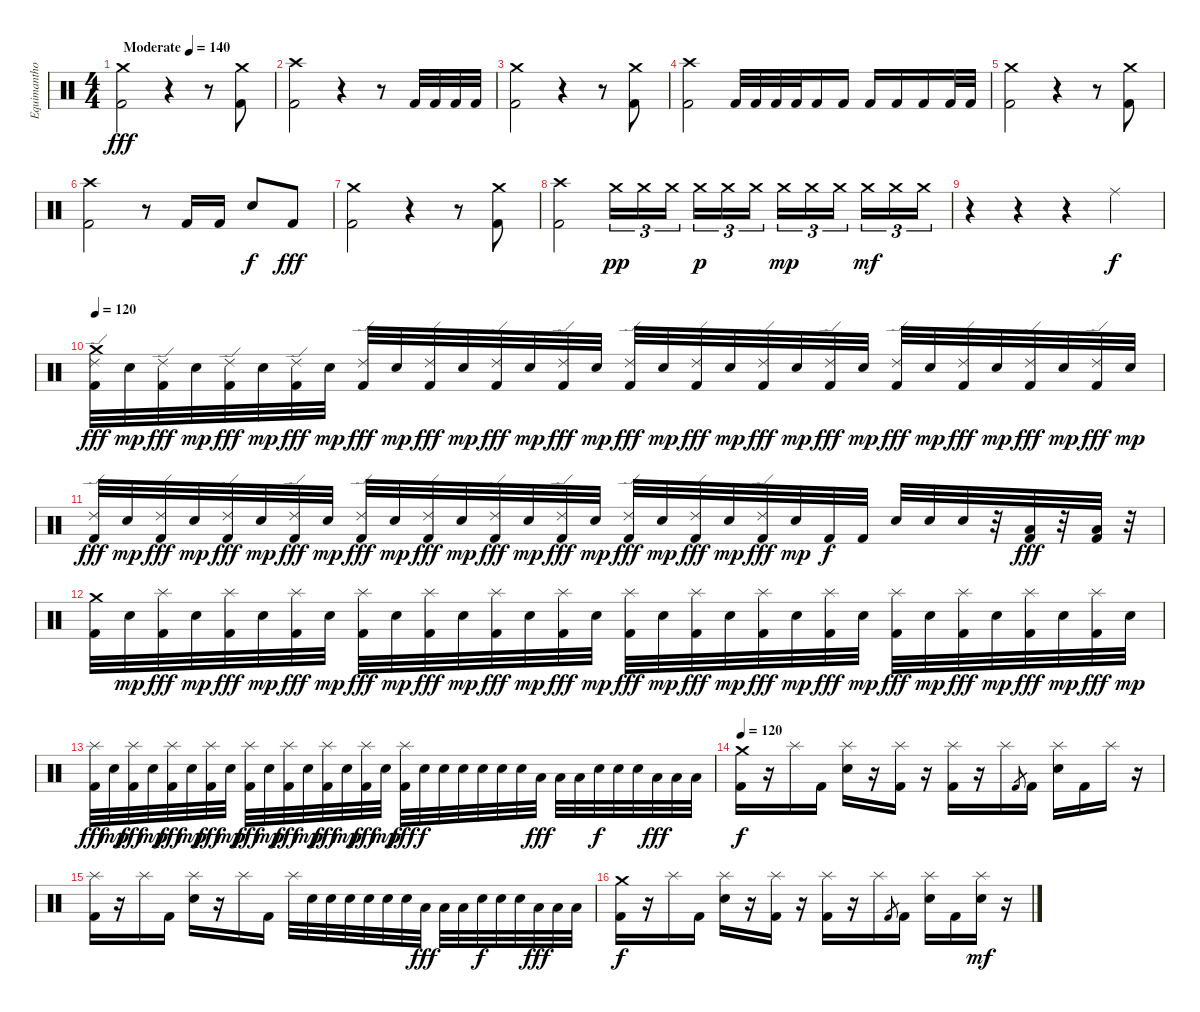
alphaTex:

\track ("Equimanthorn" "Equimantho") {instrument percussion}
\staff {score}
\articulation defaults
\ts (4 4)
\tempo (140 "Moderate")
\clef neutral
\ks c
("Crash medium (hit)" "Kick (hit) 2").2{dy fff} r.4 r.8 ("Crash medium (hit)" "Kick (hit) 2").8 |
("Crash high (hit)" "Kick (hit) 2").2 r.4 r.8 "Kick (hit) 2".32 "Kick (hit) 2".32 "Kick (hit) 2".32 "Kick (hit) 2".32 |
("Crash medium (hit)" "Kick (hit) 2").2 r.4 r.8 ("Crash medium (hit)" "Kick (hit) 2").8 |
("Crash high (hit)" "Kick (hit) 2").2 "Kick (hit) 2".32 "Kick (hit) 2".32 "Kick (hit) 2".32 "Kick (hit) 2".32 "Kick (hit) 2".16 "Kick (hit) 2".16 "Kick (hit) 2".16 "Kick (hit) 2".16 "Kick (hit) 2".16 "Kick (hit) 2".32 "Kick (hit) 2".32 |
("Crash medium (hit)" "Kick (hit) 2").2 r.4 r.8 ("Crash medium (hit)" "Kick (hit) 2").8 |
("Crash high (hit)" "Kick (hit) 2").2 r.8 "Kick (hit) 2".16 "Kick (hit) 2".16 "Snare (hit) 2".8{dy f} "Kick (hit) 2".8{dy fff} |
("Crash medium (hit)" "Kick (hit) 2").2 r.4 r.8 ("Crash medium (hit)" "Kick (hit) 2").8 |
("Crash high (hit)" "Kick (hit) 2").2 "Crash medium (hit)".16{tu (3 2) dy pp} "Crash medium (hit)".16{tu (3 2)} "Crash medium (hit)".16{tu (3 2) beam splitsecondary} "Crash medium (hit)".16{tu (3 2) dy p} "Crash medium (hit)".16{tu (3 2)} "Crash medium (hit)".16{tu (3 2)} "Crash medium (hit)".16{tu (3 2) dy mp} "Crash medium (hit)".16{tu (3 2)} "Crash medium (hit)".16{tu (3 2) beam splitsecondary} "Crash medium (hit)".16{tu (3 2) dy mf} "Crash medium (hit)".16{tu (3 2)} "Crash medium (hit)".16{tu (3 2)} |
r.4 r.4 r.4 "Ride (middle)".4{dy f} |
\tempo 120
("Crash medium (hit)" "Ride (edge) 2" "Kick (hit) 2").32{dy fff} "Snare (hit) 2".32{dy mp} ("Ride (edge) 2" "Kick (hit) 2").32{dy fff} "Snare (hit) 2".32{dy mp} ("Ride (edge) 2" "Kick (hit) 2").32{dy fff} "Snare (hit) 2".32{dy mp} ("Ride (edge) 2" "Kick (hit) 2").32{dy fff} "Snare (hit) 2".32{dy mp} ("Ride (edge) 2" "Kick (hit) 2").32{dy fff} "Snare (hit) 2".32{dy mp} ("Ride (edge) 2" "Kick (hit) 2").32{dy fff} "Snare (hit) 2".32{dy mp} ("Ride (edge) 2" "Kick (hit) 2").32{dy fff} "Snare (hit) 2".32{dy mp} ("Ride (edge) 2" "Kick (hit) 2").32{dy fff} "Snare (hit) 2".32{dy mp} ("Ride (edge) 2" "Kick (hit) 2").32{dy fff} "Snare (hit) 2".32{dy mp} ("Ride (edge) 2" "Kick (hit) 2").32{dy fff} "Snare (hit) 2".32{dy mp} ("Ride (edge) 2" "Kick (hit) 2").32{dy fff} "Snare (hit) 2".32{dy mp} ("Ride (edge) 2" "Kick (hit) 2").32{dy fff} "Snare (hit) 2".32{dy mp} ("Ride (edge) 2" "Kick (hit) 2").32{dy fff} "Snare (hit) 2".32{dy mp} ("Ride (edge) 2" "Kick (hit) 2").32{dy fff} "Snare (hit) 2".32{dy mp} ("Ride (edge) 2" "Kick (hit) 2").32{dy fff} "Snare (hit) 2".32{dy mp} ("Ride (edge) 2" "Kick (hit) 2").32{dy fff} "Snare (hit) 2".32{dy mp} |
("Ride (edge) 2" "Kick (hit) 2").32{dy fff} "Snare (hit) 2".32{dy mp} ("Ride (edge) 2" "Kick (hit) 2").32{dy fff} "Snare (hit) 2".32{dy mp} ("Ride (edge) 2" "Kick (hit) 2").32{dy fff} "Snare (hit) 2".32{dy mp} ("Ride (edge) 2" "Kick (hit) 2").32{dy fff} "Snare (hit) 2".32{dy mp} ("Ride (edge) 2" "Kick (hit) 2").32{dy fff} "Snare (hit) 2".32{dy mp} ("Ride (edge) 2" "Kick (hit) 2").32{dy fff} "Snare (hit) 2".32{dy mp} ("Ride (edge) 2" "Kick (hit) 2").32{dy fff} "Snare (hit) 2".32{dy mp} ("Ride (edge) 2" "Kick (hit) 2").32{dy fff} "Snare (hit) 2".32{dy mp} ("Ride (edge) 2" "Kick (hit) 2").32{dy fff} "Snare (hit) 2".32{dy mp} ("Ride (edge) 2" "Kick (hit) 2").32{dy fff} "Snare (hit) 2".32{dy mp} ("Ride (edge) 2" "Kick (hit) 2").32{dy fff} "Snare (hit) 2".32{dy mp} "Kick (hit) 2".32{dy f} "Kick (hit) 2".32 "Snare (hit) 2".32 "Snare (hit) 2".32 "Snare (hit) 2".32 r.32 ("Low Tom (hit)" "Kick (hit) 2").32{dy fff} r.32 ("Low Tom (hit)" "Kick (hit) 2").32 r.32 |
("Crash medium (hit)" "Kick (hit) 2").32 "Snare (hit) 2".32{dy mp} ("Splash (hit)" "Kick (hit) 2").32{dy fff} "Snare (hit) 2".32{dy mp} ("Splash (hit)" "Kick (hit) 2").32{dy fff} "Snare (hit) 2".32{dy mp} ("Splash (hit)" "Kick (hit) 2").32{dy fff} "Snare (hit) 2".32{dy mp} ("Splash (hit)" "Kick (hit) 2").32{dy fff} "Snare (hit) 2".32{dy mp} ("Splash (hit)" "Kick (hit) 2").32{dy fff} "Snare (hit) 2".32{dy mp} ("Splash (hit)" "Kick (hit) 2").32{dy fff} "Snare (hit) 2".32{dy mp} ("Splash (hit)" "Kick (hit) 2").32{dy fff} "Snare (hit) 2".32{dy mp} ("Splash (hit)" "Kick (hit) 2").32{dy fff} "Snare (hit) 2".32{dy mp} ("Splash (hit)" "Kick (hit) 2").32{dy fff} "Snare (hit) 2".32{dy mp} ("Splash (hit)" "Kick (hit) 2").32{dy fff} "Snare (hit) 2".32{dy mp} ("Splash (hit)" "Kick (hit) 2").32{dy fff} "Snare (hit) 2".32{dy mp} ("Splash (hit)" "Kick (hit) 2").32{dy fff} "Snare (hit) 2".32{dy mp} ("Splash (hit)" "Kick (hit) 2").32{dy fff} "Snare (hit) 2".32{dy mp} ("Splash (hit)" "Kick (hit) 2").32{dy fff} "Snare (hit) 2".32{dy mp} ("Splash (hit)" "Kick (hit) 2").32{dy fff} "Snare (hit) 2".32{dy mp} |
("Splash (hit)" "Kick (hit) 2").32{dy fff} "Snare (hit) 2".32{dy mp} ("Splash (hit)" "Kick (hit) 2").32{dy fff} "Snare (hit) 2".32{dy mp} ("Splash (hit)" "Kick (hit) 2").32{dy fff} "Snare (hit) 2".32{dy mp} ("Splash (hit)" "Kick (hit) 2").32{dy fff} "Snare (hit) 2".32{dy mp} ("Splash (hit)" "Kick (hit) 2").32{dy fff} "Snare (hit) 2".32{dy mp} ("Splash (hit)" "Kick (hit) 2").32{dy fff} "Snare (hit) 2".32{dy mp} ("Splash (hit)" "Kick (hit) 2").32{dy fff} "Snare (hit) 2".32{dy mp} ("Splash (hit)" "Kick (hit) 2").32{dy fff} "Snare (hit) 2".32{dy mp} ("Splash (hit)" "Kick (hit) 2").32{dy fff} "Snare (hit) 2".32{dy f} "Snare (hit) 2".32 "Snare (hit) 2".32 "Snare (hit) 2".32 "Snare (hit) 2".32 "Snare (hit) 2".32 "Low Tom (hit)".32{dy fff} "Low Tom (hit)".32 "Low Tom (hit)".32 "Snare (hit) 2".32{dy f} "Snare (hit) 2".32 "Snare (hit) 2".32 "Low Tom (hit)".32{dy fff} "Low Tom (hit)".32 "Low Tom (hit)".32 |
\tempo 120
("Crash medium (hit)" "Kick (hit) 2").16{dy f} r.16 "Splash (hit)".16 "Kick (hit) 2".16 ("Splash (hit)" "Snare (hit) 2").16 r.16 ("Splash (hit)" "Kick (hit) 2").16 r.16 ("Splash (hit)" "Kick (hit) 2").16 r.16 "Splash (hit)".16 "Kick (hit) 2".8{gr} "Kick (hit) 2".16 ("Splash (hit)" "Snare (hit) 2").16 "Kick (hit) 2".16 "Splash (hit)".16 r.16 |
("Splash (hit)" "Kick (hit) 2").16 r.16 "Splash (hit)".16 "Kick (hit) 2".16 ("Splash (hit)" "Snare (hit) 2").16 r.16 "Splash (hit)".16 "Kick (hit) 2".16 "Splash (hit)".32 "Snare (hit) 2".32 "Snare (hit) 2".32 "Snare (hit) 2".32 "Snare (hit) 2".32 "Snare (hit) 2".32 "Snare (hit) 2".32 "Low Tom (hit)".32{dy fff} "Low Tom (hit)".32 "Low Tom (hit)".32 "Snare (hit) 2".32{dy f} "Snare (hit) 2".32 "Snare (hit) 2".32 "Low Tom (hit)".32{dy fff} "Low Tom (hit)".32 "Low Tom (hit)".32 |
("Crash medium (hit)" "Kick (hit) 2").16{dy f} r.16 "Splash (hit)".16 "Kick (hit) 2".16 ("Splash (hit)" "Snare (hit) 2").16 r.16 ("Splash (hit)" "Kick (hit) 2").16 r.16 ("Splash (hit)" "Kick (hit) 2").16 r.16 "Splash (hit)".16 "Kick (hit) 2".8{gr} "Kick (hit) 2".16 ("Splash (hit)" "Snare (hit) 2").16 "Kick (hit) 2".16 ("Splash (hit)" "Snare (hit) 2").16{dy mf} r.16
